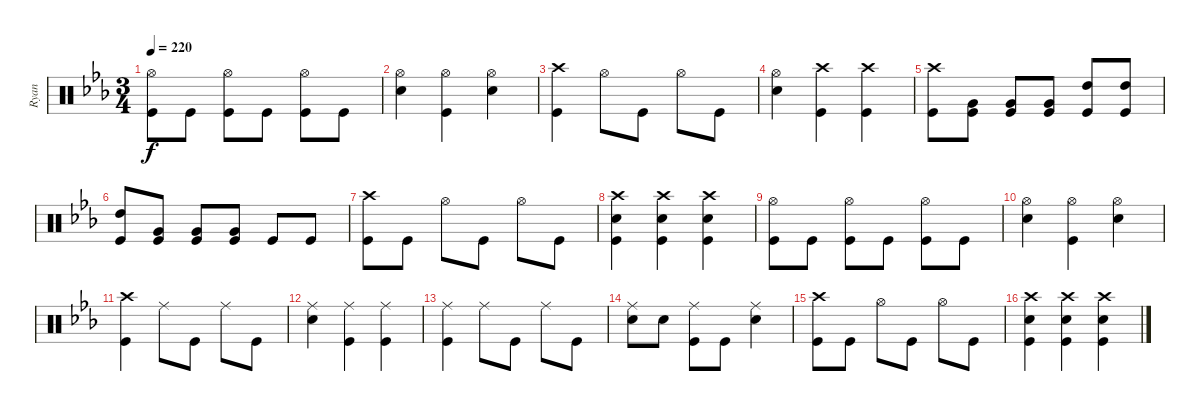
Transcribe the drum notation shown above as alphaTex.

\track ("Ryan" "Ryan") {instrument percussion}
\staff {score}
\articulation defaults
\ts (3 4)
\tempo 220
\clef neutral
\ks cminor
("Kick (hit)" "Hi-Hat (open)").8{dy f} "Kick (hit)".8 ("Kick (hit)" "Hi-Hat (open)").8 "Kick (hit)".8 ("Kick (hit)" "Hi-Hat (open)").8 "Kick (hit)".8 |
("Hi-Hat (open)" "Snare (hit) 2").4 ("Kick (hit)" "Hi-Hat (open)").4 ("Snare (hit) 2" "Hi-Hat (open)").4 |
("Crash high (hit)" "Kick (hit)").4 "Hi-Hat (open)".8 "Kick (hit)".8 "Hi-Hat (open)".8 "Kick (hit)".8 |
("Snare (hit) 2" "Hi-Hat (open)").4 ("Crash high (hit)" "Kick (hit)").4 ("Crash high (hit)" "Kick (hit)").4 |
("Kick (hit)" "Crash high (hit)").8 ("Very Low Tom (hit)" "Kick (hit)").8 ("Very Low Tom (hit)" "Kick (hit)").8 ("Very Low Tom (hit)" "Kick (hit)").8 ("High Tom (hit)" "Kick (hit)").8 ("High Tom (hit)" "Kick (hit)").8 |
("High Tom (hit)" "Kick (hit)").8 ("Very Low Tom (hit)" "Kick (hit)").8 ("Very Low Tom (hit)" "Kick (hit)").8 ("Very Low Tom (hit)" "Kick (hit)").8 "Kick (hit)".8 "Kick (hit)".8 |
("Crash high (hit)" "Kick (hit)").8 "Kick (hit)".8 "Hi-Hat (open)".8 "Kick (hit)".8 "Hi-Hat (open)".8 "Kick (hit)".8 |
("Kick (hit)" "Snare (hit) 2" "Crash high (hit)").4 ("Kick (hit)" "Snare (hit) 2" "Crash high (hit)").4 ("Crash high (hit)" "Snare (hit) 2" "Kick (hit)").4 |
("Kick (hit)" "Hi-Hat (open)").8 "Kick (hit)".8 ("Kick (hit)" "Hi-Hat (open)").8 "Kick (hit)".8 ("Kick (hit)" "Hi-Hat (open)").8 "Kick (hit)".8 |
("Hi-Hat (open)" "Snare (hit) 2").4 ("Kick (hit)" "Hi-Hat (open)").4 ("Snare (hit) 2" "Hi-Hat (open)").4 |
("Crash high (hit)" "Kick (hit)").4 "Ride (middle)".8 "Kick (hit)".8 "Ride (middle)".8 "Kick (hit)".8 |
("Ride (middle)" "Snare (hit) 2").4 ("Kick (hit)" "Ride (middle)").4 ("Kick (hit)" "Ride (middle)").4 |
("Kick (hit)" "Ride (middle)").4 "Ride (middle)".8 "Kick (hit)".8 "Ride (middle)".8 "Kick (hit)".8 |
("Snare (hit) 2" "Ride (middle)").8 "Snare (hit) 2".8 ("Kick (hit)" "Ride (middle)").8 "Kick (hit)".8 ("Snare (hit) 2" "Ride (middle)").4 |
("Crash high (hit)" "Kick (hit)").8 "Kick (hit)".8 "Hi-Hat (open)".8 "Kick (hit)".8 "Hi-Hat (open)".8 "Kick (hit)".8 |
("Kick (hit)" "Snare (hit) 2" "Crash high (hit)").4 ("Kick (hit)" "Snare (hit) 2" "Crash high (hit)").4 ("Crash high (hit)" "Snare (hit) 2" "Kick (hit)").4
